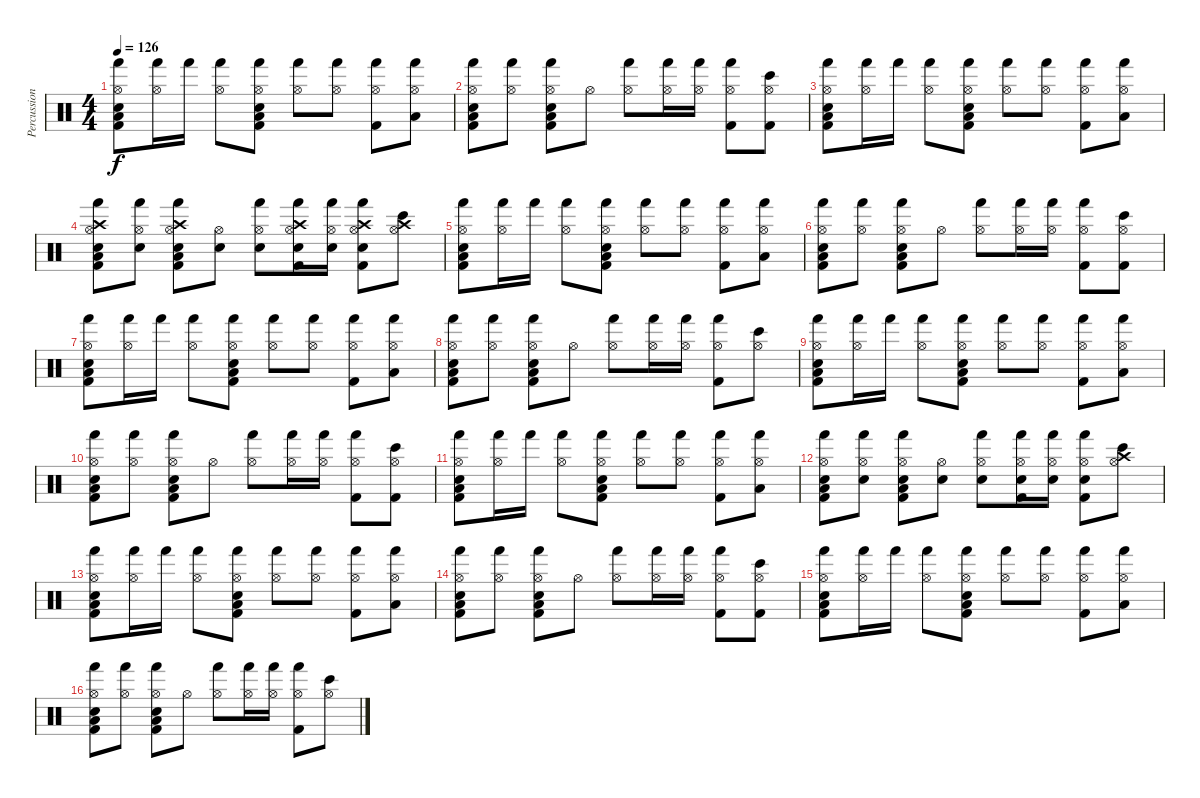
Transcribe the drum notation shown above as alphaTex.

\track ("Percussion" "Percussion") {instrument percussion}
\staff {score}
\articulation defaults
\ts (4 4)
\tempo 126
\clef neutral
\ks c
("Hand (hit)" "Low Tom (hit)" "Kick (hit) 2" "Snare (hit) 2" "Hi-Hat (open)").8{dy f} ("Hand (hit)" "Hi-Hat (open)").16 "Hand (hit)".16 ("Hand (hit)" "Hi-Hat (open)").8 ("Hand (hit)" "Low Tom (hit)" "Kick (hit) 2" "Snare (hit) 2" "Hi-Hat (open)").8 ("Hand (hit)" "Hi-Hat (open)").8 ("Hand (hit)" "Hi-Hat (open)").8 ("Hand (hit)" "Kick (hit) 2" "Hi-Hat (open)").8 ("Hand (hit)" "Low Tom (hit)" "Hi-Hat (open)").8 |
("Hand (hit)" "Low Tom (hit)" "Kick (hit) 2" "Snare (hit) 2" "Hi-Hat (open)").8 ("Hand (hit)" "Hi-Hat (open)").8 ("Hand (hit)" "Low Tom (hit)" "Kick (hit) 2" "Snare (hit) 2" "Hi-Hat (open)").8 "Hi-Hat (open)".8 ("Hand (hit)" "Hi-Hat (open)").8 ("Hand (hit)" "Hi-Hat (open)").16 ("Hand (hit)" "Hi-Hat (open)").16 ("Hand (hit)" "Kick (hit) 2" "Hi-Hat (open)").8 ("Bongo High (hit)" "Kick (hit) 2" "Hi-Hat (open)").8 |
("Hand (hit)" "Low Tom (hit)" "Kick (hit) 2" "Snare (hit) 2" "Hi-Hat (open)").8 ("Hand (hit)" "Hi-Hat (open)").16 "Hand (hit)".16 ("Hand (hit)" "Hi-Hat (open)").8 ("Hand (hit)" "Low Tom (hit)" "Kick (hit) 2" "Snare (hit) 2" "Hi-Hat (open)").8 ("Hand (hit)" "Hi-Hat (open)").8 ("Hand (hit)" "Hi-Hat (open)").8 ("Hand (hit)" "Kick (hit) 2" "Hi-Hat (open)").8 ("Hand (hit)" "Low Tom (hit)" "Hi-Hat (open)").8 |
("Hand (hit)" "Crash high (hit)" "Low Tom (hit)" "Kick (hit) 2" "Snare (hit) 2" "Hi-Hat (open)").8 ("Hand (hit)" "Snare (hit) 2" "Hi-Hat (open)").8 ("Hand (hit)" "Crash high (hit)" "Low Tom (hit)" "Kick (hit) 2" "Snare (hit) 2" "Hi-Hat (open)").8 ("Snare (hit) 2" "Hi-Hat (open)").8 ("Hand (hit)" "Snare (hit) 2" "Hi-Hat (open)").8 ("Hand (hit)" "Crash high (hit)" "Snare (hit) 2" "Kick (hit) 2" "Hi-Hat (open)").16 ("Hand (hit)" "Snare (hit) 2" "Hi-Hat (open)").16 ("Hand (hit)" "Crash high (hit)" "Snare (hit) 2" "Kick (hit) 2" "Hi-Hat (open)").8 ("Bongo High (hit)" "Crash high (hit)" "Hi-Hat (open)").8 |
("Hand (hit)" "Low Tom (hit)" "Kick (hit) 2" "Snare (hit) 2" "Hi-Hat (open)").8 ("Hand (hit)" "Hi-Hat (open)").16 "Hand (hit)".16 ("Hand (hit)" "Hi-Hat (open)").8 ("Hand (hit)" "Low Tom (hit)" "Kick (hit) 2" "Snare (hit) 2" "Hi-Hat (open)").8 ("Hand (hit)" "Hi-Hat (open)").8 ("Hand (hit)" "Hi-Hat (open)").8 ("Hand (hit)" "Kick (hit) 2" "Hi-Hat (open)").8 ("Hand (hit)" "Low Tom (hit)" "Hi-Hat (open)").8 |
("Hand (hit)" "Low Tom (hit)" "Kick (hit) 2" "Snare (hit) 2" "Hi-Hat (open)").8 ("Hand (hit)" "Hi-Hat (open)").8 ("Hand (hit)" "Low Tom (hit)" "Kick (hit) 2" "Snare (hit) 2" "Hi-Hat (open)").8 "Hi-Hat (open)".8 ("Hand (hit)" "Hi-Hat (open)").8 ("Hand (hit)" "Hi-Hat (open)").16 ("Hand (hit)" "Hi-Hat (open)").16 ("Hand (hit)" "Kick (hit) 2" "Hi-Hat (open)").8 ("Bongo High (hit)" "Kick (hit) 2" "Hi-Hat (open)").8 |
("Hand (hit)" "Low Tom (hit)" "Kick (hit) 2" "Snare (hit) 2" "Hi-Hat (open)").8 ("Hand (hit)" "Hi-Hat (open)").16 "Hand (hit)".16 ("Hand (hit)" "Hi-Hat (open)").8 ("Hand (hit)" "Low Tom (hit)" "Kick (hit) 2" "Snare (hit) 2" "Hi-Hat (open)").8 ("Hand (hit)" "Hi-Hat (open)").8 ("Hand (hit)" "Hi-Hat (open)").8 ("Hand (hit)" "Kick (hit) 2" "Hi-Hat (open)").8 ("Hand (hit)" "Low Tom (hit)" "Hi-Hat (open)").8 |
("Hand (hit)" "Low Tom (hit)" "Kick (hit) 2" "Snare (hit) 2" "Hi-Hat (open)").8 ("Hand (hit)" "Hi-Hat (open)").8 ("Hand (hit)" "Low Tom (hit)" "Kick (hit) 2" "Snare (hit) 2" "Hi-Hat (open)").8 "Hi-Hat (open)".8 ("Hand (hit)" "Hi-Hat (open)").8 ("Hand (hit)" "Hi-Hat (open)").16 ("Hand (hit)" "Hi-Hat (open)").16 ("Hand (hit)" "Kick (hit) 2" "Hi-Hat (open)").8 ("Bongo High (hit)" "Hi-Hat (open)").8 |
("Hand (hit)" "Low Tom (hit)" "Kick (hit) 2" "Snare (hit) 2" "Hi-Hat (open)").8 ("Hand (hit)" "Hi-Hat (open)").16 "Hand (hit)".16 ("Hand (hit)" "Hi-Hat (open)").8 ("Hand (hit)" "Low Tom (hit)" "Kick (hit) 2" "Snare (hit) 2" "Hi-Hat (open)").8 ("Hand (hit)" "Hi-Hat (open)").8 ("Hand (hit)" "Hi-Hat (open)").8 ("Hand (hit)" "Kick (hit) 2" "Hi-Hat (open)").8 ("Hand (hit)" "Low Tom (hit)" "Hi-Hat (open)").8 |
("Hand (hit)" "Low Tom (hit)" "Kick (hit) 2" "Snare (hit) 2" "Hi-Hat (open)").8 ("Hand (hit)" "Hi-Hat (open)").8 ("Hand (hit)" "Low Tom (hit)" "Kick (hit) 2" "Snare (hit) 2" "Hi-Hat (open)").8 "Hi-Hat (open)".8 ("Hand (hit)" "Hi-Hat (open)").8 ("Hand (hit)" "Hi-Hat (open)").16 ("Hand (hit)" "Hi-Hat (open)").16 ("Hand (hit)" "Kick (hit) 2" "Hi-Hat (open)").8 ("Bongo High (hit)" "Kick (hit) 2" "Hi-Hat (open)").8 |
("Hand (hit)" "Low Tom (hit)" "Kick (hit) 2" "Snare (hit) 2" "Hi-Hat (open)").8 ("Hand (hit)" "Hi-Hat (open)").16 "Hand (hit)".16 ("Hand (hit)" "Hi-Hat (open)").8 ("Hand (hit)" "Low Tom (hit)" "Kick (hit) 2" "Snare (hit) 2" "Hi-Hat (open)").8 ("Hand (hit)" "Hi-Hat (open)").8 ("Hand (hit)" "Hi-Hat (open)").8 ("Hand (hit)" "Kick (hit) 2" "Hi-Hat (open)").8 ("Hand (hit)" "Low Tom (hit)" "Hi-Hat (open)").8 |
("Hand (hit)" "Low Tom (hit)" "Kick (hit) 2" "Snare (hit) 2" "Hi-Hat (open)").8 ("Hand (hit)" "Snare (hit) 2" "Hi-Hat (open)").8 ("Hand (hit)" "Low Tom (hit)" "Kick (hit) 2" "Snare (hit) 2" "Hi-Hat (open)").8 ("Snare (hit) 2" "Hi-Hat (open)").8 ("Hand (hit)" "Snare (hit) 2" "Hi-Hat (open)").8 ("Hand (hit)" "Snare (hit) 2" "Kick (hit) 2" "Hi-Hat (open)").16 ("Hand (hit)" "Snare (hit) 2" "Hi-Hat (open)").16 ("Hand (hit)" "Snare (hit) 2" "Kick (hit) 2" "Hi-Hat (open)").8 ("Bongo High (hit)" "Crash high (hit)" "Hi-Hat (open)").8 |
("Hand (hit)" "Low Tom (hit)" "Kick (hit) 2" "Snare (hit) 2" "Hi-Hat (open)").8 ("Hand (hit)" "Hi-Hat (open)").16 "Hand (hit)".16 ("Hand (hit)" "Hi-Hat (open)").8 ("Hand (hit)" "Low Tom (hit)" "Kick (hit) 2" "Snare (hit) 2" "Hi-Hat (open)").8 ("Hand (hit)" "Hi-Hat (open)").8 ("Hand (hit)" "Hi-Hat (open)").8 ("Hand (hit)" "Kick (hit) 2" "Hi-Hat (open)").8 ("Hand (hit)" "Low Tom (hit)" "Hi-Hat (open)").8 |
("Hand (hit)" "Low Tom (hit)" "Kick (hit) 2" "Snare (hit) 2" "Hi-Hat (open)").8 ("Hand (hit)" "Hi-Hat (open)").8 ("Hand (hit)" "Low Tom (hit)" "Kick (hit) 2" "Snare (hit) 2" "Hi-Hat (open)").8 "Hi-Hat (open)".8 ("Hand (hit)" "Hi-Hat (open)").8 ("Hand (hit)" "Hi-Hat (open)").16 ("Hand (hit)" "Hi-Hat (open)").16 ("Hand (hit)" "Kick (hit) 2" "Hi-Hat (open)").8 ("Bongo High (hit)" "Kick (hit) 2" "Hi-Hat (open)").8 |
("Hand (hit)" "Low Tom (hit)" "Kick (hit) 2" "Snare (hit) 2" "Hi-Hat (open)").8 ("Hand (hit)" "Hi-Hat (open)").16 "Hand (hit)".16 ("Hand (hit)" "Hi-Hat (open)").8 ("Hand (hit)" "Low Tom (hit)" "Kick (hit) 2" "Snare (hit) 2" "Hi-Hat (open)").8 ("Hand (hit)" "Hi-Hat (open)").8 ("Hand (hit)" "Hi-Hat (open)").8 ("Hand (hit)" "Kick (hit) 2" "Hi-Hat (open)").8 ("Hand (hit)" "Low Tom (hit)" "Hi-Hat (open)").8 |
("Hand (hit)" "Low Tom (hit)" "Kick (hit) 2" "Snare (hit) 2" "Hi-Hat (open)").8 ("Hand (hit)" "Hi-Hat (open)").8 ("Hand (hit)" "Low Tom (hit)" "Kick (hit) 2" "Snare (hit) 2" "Hi-Hat (open)").8 "Hi-Hat (open)".8 ("Hand (hit)" "Hi-Hat (open)").8 ("Hand (hit)" "Hi-Hat (open)").16 ("Hand (hit)" "Hi-Hat (open)").16 ("Hand (hit)" "Kick (hit) 2" "Hi-Hat (open)").8 ("Bongo High (hit)" "Hi-Hat (open)").8
